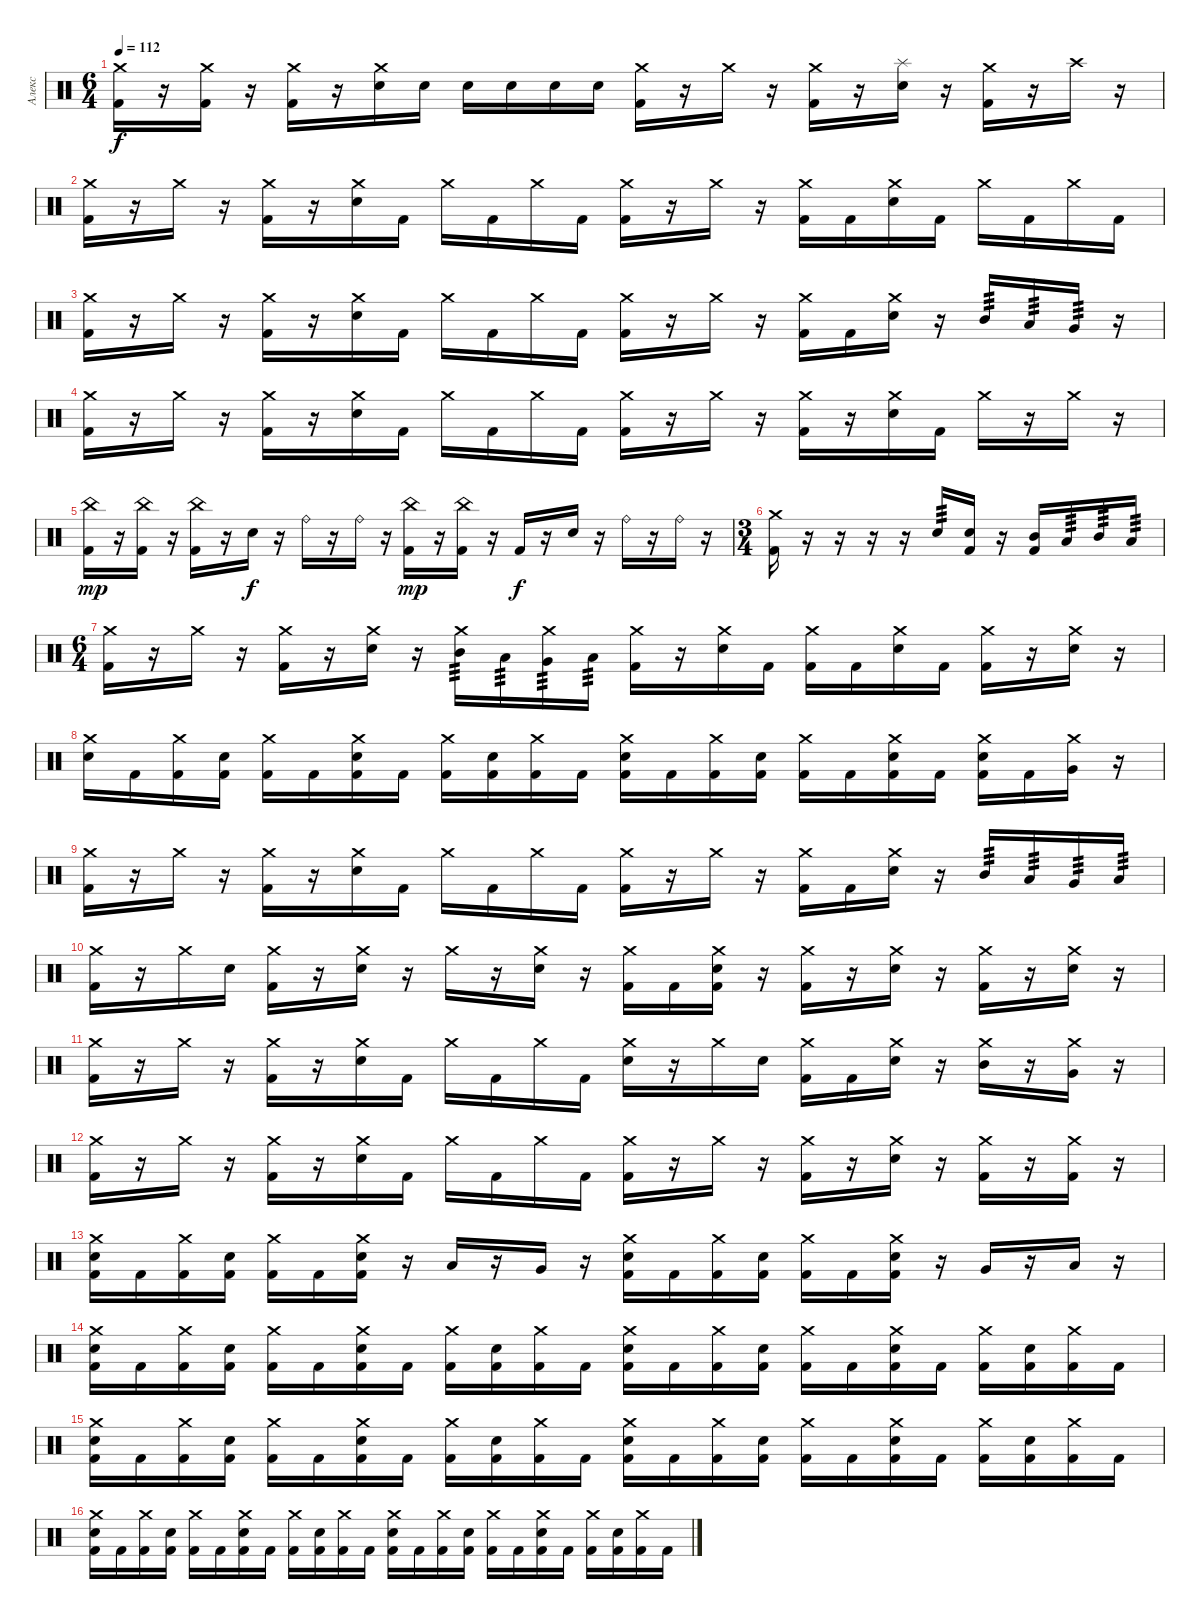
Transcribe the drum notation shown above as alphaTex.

\track ("Алекс" "Алекс") {instrument percussion}
\staff {score}
\articulation defaults
\ts (6 4)
\tempo 112
\clef neutral
\ks c
("Crash medium (hit)" "Kick (hit) 2").16{dy f} r.16 ("Crash medium (hit)" "Kick (hit) 2").16 r.16 ("Crash medium (hit)" "Kick (hit) 2").16 r.16 ("Crash medium (hit)" "Electric Snare (hit)").16 "Electric Snare (hit)".16 "Electric Snare (hit)".16 "Electric Snare (hit)".16 "Electric Snare (hit)".16 "Electric Snare (hit)".16 ("Crash medium (hit)" "Kick (hit) 2").16 r.16 "Crash medium (hit)".16 r.16 ("Crash medium (hit)" "Kick (hit) 2").16 r.16 ("Splash (hit)" "Electric Snare (hit)").16 r.16 ("Crash medium (hit)" "Kick (hit) 2").16 r.16 "Crash high (hit)".16 r.16 |
("Crash medium (hit)" "Kick (hit) 2").16 r.16 "Crash medium (hit)".16 r.16 ("Crash medium (hit)" "Kick (hit) 2").16 r.16 ("Crash medium (hit)" "Electric Snare (hit)").16 "Kick (hit) 2".16 "Crash medium (hit)".16 "Kick (hit) 2".16 "Crash medium (hit)".16 "Kick (hit) 2".16 ("Crash medium (hit)" "Kick (hit) 2").16 r.16 "Crash medium (hit)".16 r.16 ("Crash medium (hit)" "Kick (hit) 2").16 "Kick (hit) 2".16 ("Crash medium (hit)" "Electric Snare (hit)").16 "Kick (hit) 2".16 "Crash medium (hit)".16 "Kick (hit) 2".16 "Crash medium (hit)".16 "Kick (hit) 2".16 |
("Crash medium (hit)" "Kick (hit) 2").16 r.16 "Crash medium (hit)".16 r.16 ("Crash medium (hit)" "Kick (hit) 2").16 r.16 ("Crash medium (hit)" "Electric Snare (hit)").16 "Kick (hit) 2".16 "Crash medium (hit)".16 "Kick (hit) 2".16 "Crash medium (hit)".16 "Kick (hit) 2".16 ("Crash medium (hit)" "Kick (hit) 2").16 r.16 "Crash medium (hit)".16 r.16 ("Crash medium (hit)" "Kick (hit) 2").16 "Kick (hit) 2".16 ("Crash medium (hit)" "Electric Snare (hit)").16 r.16 "Mid Tom (hit)".16{tp 3} "Low Tom (hit)".16{tp 3} "Very Low Tom (hit)".16{tp 3} r.16 |
("Crash medium (hit)" "Kick (hit) 2").16 r.16 "Crash medium (hit)".16 r.16 ("Crash medium (hit)" "Kick (hit) 2").16 r.16 ("Crash medium (hit)" "Electric Snare (hit)").16 "Kick (hit) 2".16 "Crash medium (hit)".16 "Kick (hit) 2".16 "Crash medium (hit)".16 "Kick (hit) 2".16 ("Crash medium (hit)" "Kick (hit) 2").16 r.16 "Crash medium (hit)".16 r.16 ("Crash medium (hit)" "Kick (hit) 2").16 r.16 ("Crash medium (hit)" "Electric Snare (hit)").16 "Kick (hit) 2".16 "Crash medium (hit)".16 r.16 "Crash medium (hit)".16 r.16 |
("China (hit)" "Kick (hit) 2").16{dy mp} r.16 ("China (hit)" "Kick (hit) 2").16 r.16 ("China (hit)" "Kick (hit) 2").16 r.16 "Electric Snare (hit)".16{dy f} r.16 "Ride (bell)".16 r.16 "Ride (bell)".16 r.16 ("China (hit)" "Kick (hit) 2").16{dy mp} r.16 ("China (hit)" "Kick (hit) 2").16 r.16 "Kick (hit) 2".16{dy f} r.16 "Electric Snare (hit)".16 r.16 "Ride (bell)".16 r.16 "Ride (bell)".16 r.16 |
\ts (3 4)
("Crash medium (hit)" "Kick (hit) 2").16 r.16 r.16 r.16 r.16 "Electric Snare (hit)".16{tp 3} ("Electric Snare (hit)" "Kick (hit) 2").16 r.16 ("Mid Tom (hit)" "Kick (hit) 2").16 "Low Tom (hit)".16{tp 3} "Mid Tom (hit)".16{tp 3} "Low Tom (hit)".16{tp 3} |
\ts (6 4)
("Crash medium (hit)" "Kick (hit) 2").16 r.16 "Crash medium (hit)".16 r.16 ("Crash medium (hit)" "Kick (hit) 2").16 r.16 ("Crash medium (hit)" "Electric Snare (hit)").16 r.16 ("Crash medium (hit)" "Mid Tom (hit)").16{tp 3} "Low Tom (hit)".16{tp 3} ("Crash medium (hit)" "Very Low Tom (hit)").16{tp 3} "Low Tom (hit)".16{tp 3} ("Crash medium (hit)" "Kick (hit) 2").16 r.16 ("Crash medium (hit)" "Electric Snare (hit)").16 "Kick (hit) 2".16 ("Crash medium (hit)" "Kick (hit) 2").16 "Kick (hit) 2".16 ("Crash medium (hit)" "Electric Snare (hit)").16 "Kick (hit) 2".16 ("Crash medium (hit)" "Kick (hit) 2").16 r.16 ("Crash medium (hit)" "Electric Snare (hit)").16 r.16 |
("Crash medium (hit)" "Electric Snare (hit)").16 "Kick (hit) 2".16 ("Crash medium (hit)" "Kick (hit) 2").16 ("Electric Snare (hit)" "Kick (hit) 2").16 ("Crash medium (hit)" "Kick (hit) 2").16 "Kick (hit) 2".16 ("Crash medium (hit)" "Electric Snare (hit)" "Kick (hit) 2").16 "Kick (hit) 2".16 ("Crash medium (hit)" "Kick (hit) 2").16 ("Electric Snare (hit)" "Kick (hit) 2").16 ("Crash medium (hit)" "Kick (hit) 2").16 "Kick (hit) 2".16 ("Crash medium (hit)" "Electric Snare (hit)" "Kick (hit) 2").16 "Kick (hit) 2".16 ("Crash medium (hit)" "Kick (hit) 2").16 ("Electric Snare (hit)" "Kick (hit) 2").16 ("Crash medium (hit)" "Kick (hit) 2").16 "Kick (hit) 2".16 ("Crash medium (hit)" "Electric Snare (hit)" "Kick (hit) 2").16 "Kick (hit) 2".16 ("Crash medium (hit)" "Electric Snare (hit)" "Kick (hit) 2").16 "Kick (hit) 2".16 ("Crash medium (hit)" "Very Low Tom (hit)").16 r.16 |
("Crash medium (hit)" "Kick (hit) 2").16 r.16 "Crash medium (hit)".16 r.16 ("Crash medium (hit)" "Kick (hit) 2").16 r.16 ("Crash medium (hit)" "Electric Snare (hit)").16 "Kick (hit) 2".16 "Crash medium (hit)".16 "Kick (hit) 2".16 "Crash medium (hit)".16 "Kick (hit) 2".16 ("Crash medium (hit)" "Kick (hit) 2").16 r.16 "Crash medium (hit)".16 r.16 ("Crash medium (hit)" "Kick (hit) 2").16 "Kick (hit) 2".16 ("Crash medium (hit)" "Electric Snare (hit)").16 r.16 "Mid Tom (hit)".16{tp 3} "Low Tom (hit)".16{tp 3} "Very Low Tom (hit)".16{tp 3} "Low Tom (hit)".16{tp 3} |
("Crash medium (hit)" "Kick (hit) 2").16 r.16 "Crash medium (hit)".16 "Electric Snare (hit)".16 ("Crash medium (hit)" "Kick (hit) 2").16 r.16 ("Crash medium (hit)" "Electric Snare (hit)").16 r.16 "Crash medium (hit)".16 r.16 ("Crash medium (hit)" "Electric Snare (hit)").16 r.16 ("Crash medium (hit)" "Kick (hit) 2").16 "Kick (hit) 2".16 ("Crash medium (hit)" "Electric Snare (hit)" "Kick (hit) 2").16 r.16 ("Crash medium (hit)" "Kick (hit) 2").16 r.16 ("Crash medium (hit)" "Electric Snare (hit)").16 r.16 ("Crash medium (hit)" "Kick (hit) 2").16 r.16 ("Crash medium (hit)" "Electric Snare (hit)").16 r.16 |
("Crash medium (hit)" "Kick (hit) 2").16 r.16 "Crash medium (hit)".16 r.16 ("Crash medium (hit)" "Kick (hit) 2").16 r.16 ("Crash medium (hit)" "Electric Snare (hit)").16 "Kick (hit) 2".16 "Crash medium (hit)".16 "Kick (hit) 2".16 "Crash medium (hit)".16 "Kick (hit) 2".16 ("Crash medium (hit)" "Electric Snare (hit)").16 r.16 "Crash medium (hit)".16 "Electric Snare (hit)".16 ("Crash medium (hit)" "Kick (hit) 2").16 "Kick (hit) 2".16 ("Crash medium (hit)" "Electric Snare (hit)").16 r.16 ("Crash medium (hit)" "Mid Tom (hit)").16 r.16 ("Crash medium (hit)" "Very Low Tom (hit)").16 r.16 |
("Crash medium (hit)" "Kick (hit) 2").16 r.16 "Crash medium (hit)".16 r.16 ("Crash medium (hit)" "Kick (hit) 2").16 r.16 ("Crash medium (hit)" "Electric Snare (hit)").16 "Kick (hit) 2".16 "Crash medium (hit)".16 "Kick (hit) 2".16 "Crash medium (hit)".16 "Kick (hit) 2".16 ("Crash medium (hit)" "Kick (hit) 2").16 r.16 "Crash medium (hit)".16 r.16 ("Crash medium (hit)" "Kick (hit) 2").16 r.16 ("Crash medium (hit)" "Electric Snare (hit)").16 r.16 ("Crash medium (hit)" "Kick (hit) 2").16 r.16 ("Crash medium (hit)" "Kick (hit) 2").16 r.16 |
("Crash medium (hit)" "Electric Snare (hit)" "Kick (hit) 2").16 "Kick (hit) 2".16 ("Crash medium (hit)" "Kick (hit) 2").16 ("Electric Snare (hit)" "Kick (hit) 2").16 ("Crash medium (hit)" "Kick (hit) 2").16 "Kick (hit) 2".16 ("Crash medium (hit)" "Electric Snare (hit)" "Kick (hit) 2").16 r.16 "Low Tom (hit)".16 r.16 "Very Low Tom (hit)".16 r.16 ("Crash medium (hit)" "Electric Snare (hit)" "Kick (hit) 2").16 "Kick (hit) 2".16 ("Crash medium (hit)" "Kick (hit) 2").16 ("Electric Snare (hit)" "Kick (hit) 2").16 ("Crash medium (hit)" "Kick (hit) 2").16 "Kick (hit) 2".16 ("Crash medium (hit)" "Electric Snare (hit)" "Kick (hit) 2").16 r.16 "Very Low Tom (hit)".16 r.16 "Low Floor Tom (hit)".16 r.16 |
("Crash medium (hit)" "Electric Snare (hit)" "Kick (hit) 2").16 "Kick (hit) 2".16 ("Crash medium (hit)" "Kick (hit) 2").16 ("Electric Snare (hit)" "Kick (hit) 2").16 ("Crash medium (hit)" "Kick (hit) 2").16 "Kick (hit) 2".16 ("Crash medium (hit)" "Electric Snare (hit)" "Kick (hit) 2").16 "Kick (hit) 2".16 ("Crash medium (hit)" "Kick (hit) 2").16 ("Electric Snare (hit)" "Kick (hit) 2").16 ("Crash medium (hit)" "Kick (hit) 2").16 "Kick (hit) 2".16 ("Crash medium (hit)" "Electric Snare (hit)" "Kick (hit) 2").16 "Kick (hit) 2".16 ("Crash medium (hit)" "Kick (hit) 2").16 ("Electric Snare (hit)" "Kick (hit) 2").16 ("Crash medium (hit)" "Kick (hit) 2").16 "Kick (hit) 2".16 ("Crash medium (hit)" "Electric Snare (hit)" "Kick (hit) 2").16 "Kick (hit) 2".16 ("Crash medium (hit)" "Kick (hit) 2").16 ("Electric Snare (hit)" "Kick (hit) 2").16 ("Crash medium (hit)" "Kick (hit) 2").16 "Kick (hit) 2".16 |
("Crash medium (hit)" "Electric Snare (hit)" "Kick (hit) 2").16 "Kick (hit) 2".16 ("Crash medium (hit)" "Kick (hit) 2").16 ("Electric Snare (hit)" "Kick (hit) 2").16 ("Crash medium (hit)" "Kick (hit) 2").16 "Kick (hit) 2".16 ("Crash medium (hit)" "Electric Snare (hit)" "Kick (hit) 2").16 "Kick (hit) 2".16 ("Crash medium (hit)" "Kick (hit) 2").16 ("Electric Snare (hit)" "Kick (hit) 2").16 ("Crash medium (hit)" "Kick (hit) 2").16 "Kick (hit) 2".16 ("Crash medium (hit)" "Electric Snare (hit)" "Kick (hit) 2").16 "Kick (hit) 2".16 ("Crash medium (hit)" "Kick (hit) 2").16 ("Electric Snare (hit)" "Kick (hit) 2").16 ("Crash medium (hit)" "Kick (hit) 2").16 "Kick (hit) 2".16 ("Crash medium (hit)" "Electric Snare (hit)" "Kick (hit) 2").16 "Kick (hit) 2".16 ("Crash medium (hit)" "Kick (hit) 2").16 ("Electric Snare (hit)" "Kick (hit) 2").16 ("Crash medium (hit)" "Kick (hit) 2").16 "Kick (hit) 2".16 |
("Crash medium (hit)" "Electric Snare (hit)" "Kick (hit) 2").16 "Kick (hit) 2".16 ("Crash medium (hit)" "Kick (hit) 2").16 ("Electric Snare (hit)" "Kick (hit) 2").16 ("Crash medium (hit)" "Kick (hit) 2").16 "Kick (hit) 2".16 ("Crash medium (hit)" "Electric Snare (hit)" "Kick (hit) 2").16 "Kick (hit) 2".16 ("Crash medium (hit)" "Kick (hit) 2").16 ("Electric Snare (hit)" "Kick (hit) 2").16 ("Crash medium (hit)" "Kick (hit) 2").16 "Kick (hit) 2".16 ("Crash medium (hit)" "Electric Snare (hit)" "Kick (hit) 2").16 "Kick (hit) 2".16 ("Crash medium (hit)" "Kick (hit) 2").16 ("Electric Snare (hit)" "Kick (hit) 2").16 ("Crash medium (hit)" "Kick (hit) 2").16 "Kick (hit) 2".16 ("Crash medium (hit)" "Electric Snare (hit)" "Kick (hit) 2").16 "Kick (hit) 2".16 ("Crash medium (hit)" "Kick (hit) 2").16 ("Electric Snare (hit)" "Kick (hit) 2").16 ("Crash medium (hit)" "Kick (hit) 2").16 "Kick (hit) 2".16
